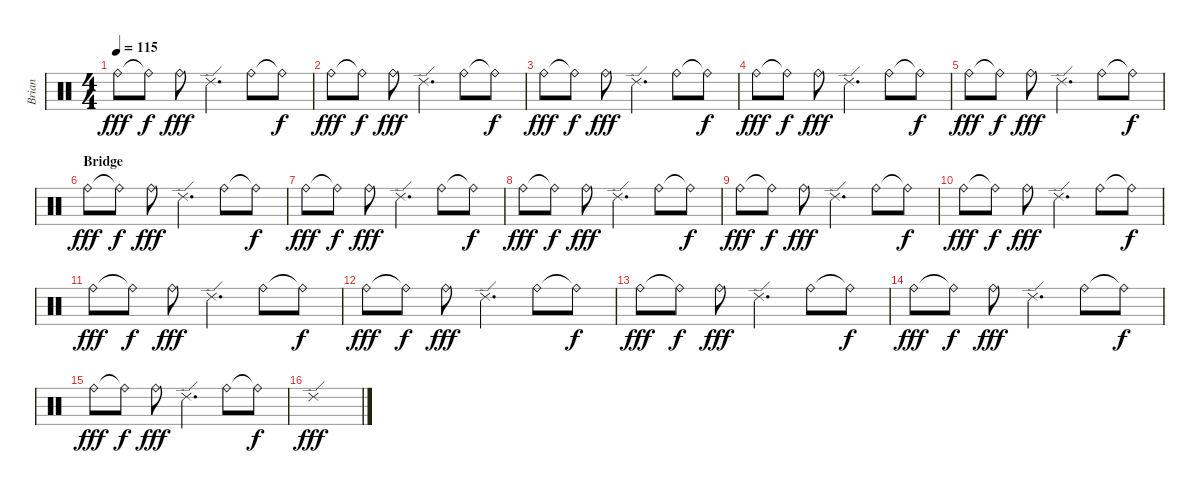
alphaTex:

\track ("Brian" "Brian") {instrument percussion}
\staff {score}
\articulation defaults
\ts (4 4)
\tempo 115
\clef neutral
\ks c "Ride (bell)".8{dy fff} "Ride (bell)"{t}.8{dy f} "Ride (bell)".8{dy fff} "Ride (edge) 2".4{d} "Ride (bell)".8 "Ride (bell)"{t}.8{dy f}
|
"Ride (bell)".8{dy fff} "Ride (bell)"{t}.8{dy f} "Ride (bell)".8{dy fff} "Ride (edge) 2".4{d} "Ride (bell)".8 "Ride (bell)"{t}.8{dy f} |
"Ride (bell)".8{dy fff} "Ride (bell)"{t}.8{dy f} "Ride (bell)".8{dy fff} "Ride (edge) 2".4{d} "Ride (bell)".8 "Ride (bell)"{t}.8{dy f} |
"Ride (bell)".8{dy fff} "Ride (bell)"{t}.8{dy f} "Ride (bell)".8{dy fff} "Ride (edge) 2".4{d} "Ride (bell)".8 "Ride (bell)"{t}.8{dy f} |
"Ride (bell)".8{dy fff} "Ride (bell)"{t}.8{dy f} "Ride (bell)".8{dy fff} "Ride (edge) 2".4{d} "Ride (bell)".8 "Ride (bell)"{t}.8{dy f} |
\section ("" "Bridge")
"Ride (bell)".8{dy fff} "Ride (bell)"{t}.8{dy f} "Ride (bell)".8{dy fff} "Ride (edge) 2".4{d} "Ride (bell)".8 "Ride (bell)"{t}.8{dy f} |
"Ride (bell)".8{dy fff} "Ride (bell)"{t}.8{dy f} "Ride (bell)".8{dy fff} "Ride (edge) 2".4{d} "Ride (bell)".8 "Ride (bell)"{t}.8{dy f} |
"Ride (bell)".8{dy fff} "Ride (bell)"{t}.8{dy f} "Ride (bell)".8{dy fff} "Ride (edge) 2".4{d} "Ride (bell)".8 "Ride (bell)"{t}.8{dy f} |
"Ride (bell)".8{dy fff} "Ride (bell)"{t}.8{dy f} "Ride (bell)".8{dy fff} "Ride (edge) 2".4{d} "Ride (bell)".8 "Ride (bell)"{t}.8{dy f} |
"Ride (bell)".8{dy fff} "Ride (bell)"{t}.8{dy f} "Ride (bell)".8{dy fff} "Ride (edge) 2".4{d} "Ride (bell)".8 "Ride (bell)"{t}.8{dy f} |
"Ride (bell)".8{dy fff} "Ride (bell)"{t}.8{dy f} "Ride (bell)".8{dy fff} "Ride (edge) 2".4{d} "Ride (bell)".8 "Ride (bell)"{t}.8{dy f} |
"Ride (bell)".8{dy fff} "Ride (bell)"{t}.8{dy f} "Ride (bell)".8{dy fff} "Ride (edge) 2".4{d} "Ride (bell)".8 "Ride (bell)"{t}.8{dy f} |
"Ride (bell)".8{dy fff} "Ride (bell)"{t}.8{dy f} "Ride (bell)".8{dy fff} "Ride (edge) 2".4{d} "Ride (bell)".8 "Ride (bell)"{t}.8{dy f} |
"Ride (bell)".8{dy fff} "Ride (bell)"{t}.8{dy f} "Ride (bell)".8{dy fff} "Ride (edge) 2".4{d} "Ride (bell)".8 "Ride (bell)"{t}.8{dy f} |
"Ride (bell)".8{dy fff} "Ride (bell)"{t}.8{dy f} "Ride (bell)".8{dy fff} "Ride (edge) 2".4{d} "Ride (bell)".8 "Ride (bell)"{t}.8{dy f} |
"Ride (edge) 2".1{dy fff}
